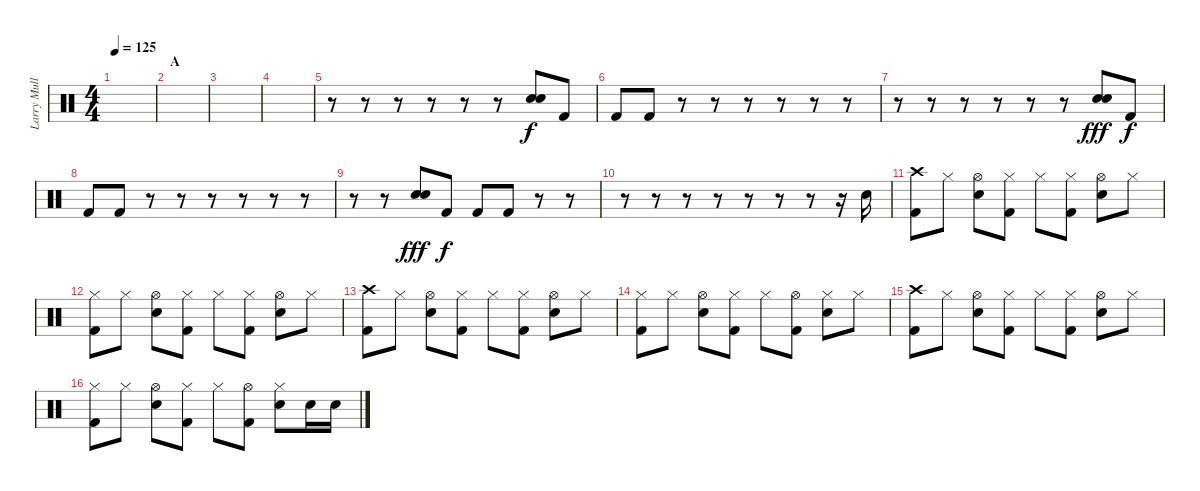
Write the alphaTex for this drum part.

\track ("Larry Mullen Jr" "Larry Mull") {instrument percussion}
\staff {score}
\articulation defaults
\ts (4 4)
\tempo 125
\clef neutral
\ks c
|
\section ("" "A")
|
|
|
r.8 r.8 r.8 r.8 r.8 r.8 ("Snare (hit) 2" "Snare (hit) 2").8 "Kick (hit) 2".8{dy f} |
"Kick (hit) 2".8 "Kick (hit) 2".8 r.8 r.8 r.8 r.8 r.8 r.8 |
r.8 r.8 r.8 r.8 r.8 r.8 ("Snare (hit) 2" "Snare (hit) 2").8{dy fff} "Kick (hit) 2".8{dy f} |
"Kick (hit) 2".8 "Kick (hit) 2".8 r.8 r.8 r.8 r.8 r.8 r.8 |
r.8 r.8 ("Snare (hit) 2" "Snare (hit) 2").8{dy fff} "Kick (hit) 2".8{dy f} "Kick (hit) 2".8 "Kick (hit) 2".8 r.8 r.8 |
r.8 r.8 r.8 r.8 r.8 r.8 r.8 r.16 "Snare (hit) 2".16 |
("Crash high (hit)" "Kick (hit) 2").8 "Hi-Hat (closed)".8 ("Hi-Hat (open)" "Snare (hit) 2").8 ("Hi-Hat (closed)" "Kick (hit) 2").8 "Hi-Hat (closed)".8 ("Hi-Hat (closed)" "Kick (hit) 2").8 ("Hi-Hat (open)" "Snare (hit) 2").8 "Hi-Hat (closed)".8 |
("Hi-Hat (closed)" "Kick (hit) 2").8 "Hi-Hat (closed)".8 ("Hi-Hat (open)" "Snare (hit) 2").8 ("Hi-Hat (closed)" "Kick (hit) 2").8 "Hi-Hat (closed)".8 ("Hi-Hat (closed)" "Kick (hit) 2").8 ("Hi-Hat (open)" "Snare (hit) 2").8 "Hi-Hat (closed)".8 |
("Crash high (hit)" "Kick (hit) 2").8 "Hi-Hat (closed)".8 ("Hi-Hat (open)" "Snare (hit) 2").8 ("Hi-Hat (closed)" "Kick (hit) 2").8 "Hi-Hat (closed)".8 ("Hi-Hat (closed)" "Kick (hit) 2").8 ("Hi-Hat (open)" "Snare (hit) 2").8 "Hi-Hat (closed)".8 |
("Hi-Hat (closed)" "Kick (hit) 2").8 "Hi-Hat (closed)".8 ("Hi-Hat (open)" "Snare (hit) 2").8 ("Hi-Hat (closed)" "Kick (hit) 2").8 "Hi-Hat (closed)".8 ("Hi-Hat (open)" "Kick (hit) 2").8 ("Hi-Hat (closed)" "Snare (hit) 2").8 "Hi-Hat (closed)".8 |
("Crash high (hit)" "Kick (hit) 2").8 "Hi-Hat (closed)".8 ("Hi-Hat (open)" "Snare (hit) 2").8 ("Hi-Hat (closed)" "Kick (hit) 2").8 "Hi-Hat (closed)".8 ("Hi-Hat (closed)" "Kick (hit) 2").8 ("Hi-Hat (open)" "Snare (hit) 2").8 "Hi-Hat (closed)".8 |
("Hi-Hat (closed)" "Kick (hit) 2").8 "Hi-Hat (closed)".8 ("Hi-Hat (open)" "Snare (hit) 2").8 ("Hi-Hat (closed)" "Kick (hit) 2").8 "Hi-Hat (closed)".8 ("Hi-Hat (open)" "Kick (hit) 2").8 ("Hi-Hat (closed)" "Snare (hit) 2").8 "Snare (hit) 2".16 "Snare (hit) 2".16
